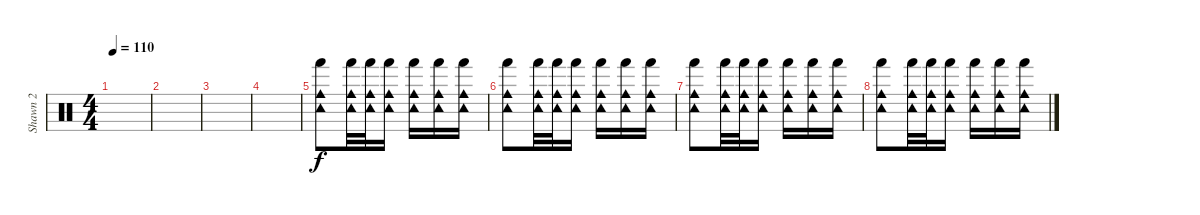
\track ("Shawn 2" "Shawn 2") {instrument percussion}
\staff {score}
\articulation defaults
\ts (4 4)
\tempo 110
\clef neutral
\ks c
|
|
|
|
("Cowbell medium (hit)" "Hand (hit)" "Tambourine (hit)").8 ("Cowbell medium (hit)" "Hand (hit)" "Tambourine (hit)").32 ("Cowbell medium (hit)" "Hand (hit)" "Tambourine (hit)").32 ("Cowbell medium (hit)" "Hand (hit)" "Tambourine (hit)").16 ("Cowbell medium (hit)" "Hand (hit)" "Tambourine (hit)").16 ("Cowbell medium (hit)" "Hand (hit)" "Tambourine (hit)").16 ("Cowbell medium (hit)" "Hand (hit)" "Tambourine (hit)").16 |
("Cowbell medium (hit)" "Hand (hit)" "Tambourine (hit)").8 ("Cowbell medium (hit)" "Hand (hit)" "Tambourine (hit)").32 ("Cowbell medium (hit)" "Hand (hit)" "Tambourine (hit)").32 ("Cowbell medium (hit)" "Hand (hit)" "Tambourine (hit)").16 ("Cowbell medium (hit)" "Hand (hit)" "Tambourine (hit)").16 ("Cowbell medium (hit)" "Hand (hit)" "Tambourine (hit)").16 ("Cowbell medium (hit)" "Hand (hit)" "Tambourine (hit)").16 |
("Cowbell medium (hit)" "Hand (hit)" "Tambourine (hit)").8 ("Cowbell medium (hit)" "Hand (hit)" "Tambourine (hit)").32 ("Cowbell medium (hit)" "Hand (hit)" "Tambourine (hit)").32 ("Cowbell medium (hit)" "Hand (hit)" "Tambourine (hit)").16 ("Cowbell medium (hit)" "Hand (hit)" "Tambourine (hit)").16 ("Cowbell medium (hit)" "Hand (hit)" "Tambourine (hit)").16 ("Cowbell medium (hit)" "Hand (hit)" "Tambourine (hit)").16 |
("Cowbell medium (hit)" "Hand (hit)" "Tambourine (hit)").8 ("Cowbell medium (hit)" "Hand (hit)" "Tambourine (hit)").32 ("Cowbell medium (hit)" "Hand (hit)" "Tambourine (hit)").32 ("Cowbell medium (hit)" "Hand (hit)" "Tambourine (hit)").16 ("Cowbell medium (hit)" "Hand (hit)" "Tambourine (hit)").16 ("Cowbell medium (hit)" "Hand (hit)" "Tambourine (hit)").16 ("Cowbell medium (hit)" "Hand (hit)" "Tambourine (hit)").16
